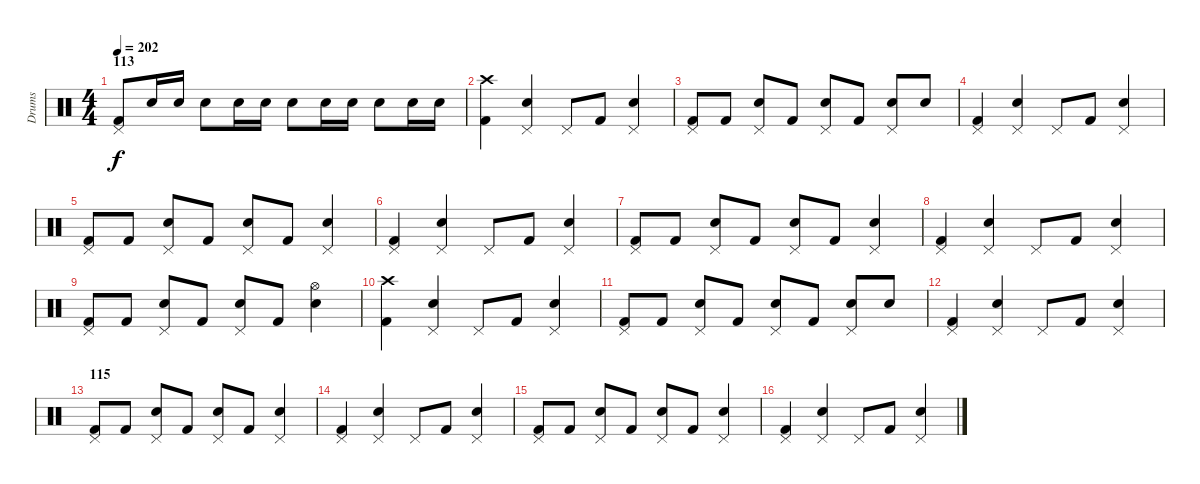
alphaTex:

\track ("Drums" "Drums") {instrument percussion}
\staff {score}
\articulation defaults
\ts (4 4)
\section ("" "113")
\tempo 202
\clef neutral
\ks c
("Pedal Hi-Hat (hit)" "Kick (hit) 2").8{dy f} "Electric Snare (hit)".16 "Electric Snare (hit)".16 "Electric Snare (hit)".8 "Electric Snare (hit)".16 "Electric Snare (hit)".16 "Electric Snare (hit)".8 "Electric Snare (hit)".16 "Electric Snare (hit)".16 "Electric Snare (hit)".8 "Electric Snare (hit)".16 "Electric Snare (hit)".16 |
("Crash high (hit)" "Kick (hit) 2").4 ("Pedal Hi-Hat (hit)" "Electric Snare (hit)").4 "Pedal Hi-Hat (hit)".8 "Kick (hit) 2".8 ("Pedal Hi-Hat (hit)" "Electric Snare (hit)").4 |
("Pedal Hi-Hat (hit)" "Kick (hit) 2").8 "Kick (hit) 2".8 ("Pedal Hi-Hat (hit)" "Electric Snare (hit)").8 "Kick (hit) 2".8 ("Pedal Hi-Hat (hit)" "Electric Snare (hit)").8 "Kick (hit) 2".8 ("Pedal Hi-Hat (hit)" "Electric Snare (hit)").8 "Electric Snare (hit)".8 |
("Pedal Hi-Hat (hit)" "Kick (hit) 2").4 ("Pedal Hi-Hat (hit)" "Electric Snare (hit)").4 "Pedal Hi-Hat (hit)".8 "Kick (hit) 2".8 ("Pedal Hi-Hat (hit)" "Electric Snare (hit)").4 |
("Pedal Hi-Hat (hit)" "Kick (hit) 2").8 "Kick (hit) 2".8 ("Pedal Hi-Hat (hit)" "Electric Snare (hit)").8 "Kick (hit) 2".8 ("Pedal Hi-Hat (hit)" "Electric Snare (hit)").8 "Kick (hit) 2".8 ("Pedal Hi-Hat (hit)" "Electric Snare (hit)").4 |
("Pedal Hi-Hat (hit)" "Kick (hit) 2").4 ("Pedal Hi-Hat (hit)" "Electric Snare (hit)").4 "Pedal Hi-Hat (hit)".8 "Kick (hit) 2".8 ("Pedal Hi-Hat (hit)" "Electric Snare (hit)").4 |
("Pedal Hi-Hat (hit)" "Kick (hit) 2").8 "Kick (hit) 2".8 ("Pedal Hi-Hat (hit)" "Electric Snare (hit)").8 "Kick (hit) 2".8 ("Pedal Hi-Hat (hit)" "Electric Snare (hit)").8 "Kick (hit) 2".8 ("Pedal Hi-Hat (hit)" "Electric Snare (hit)").4 |
("Pedal Hi-Hat (hit)" "Kick (hit) 2").4 ("Pedal Hi-Hat (hit)" "Electric Snare (hit)").4 "Pedal Hi-Hat (hit)".8 "Kick (hit) 2".8 ("Pedal Hi-Hat (hit)" "Electric Snare (hit)").4 |
("Pedal Hi-Hat (hit)" "Kick (hit) 2").8 "Kick (hit) 2".8 ("Pedal Hi-Hat (hit)" "Electric Snare (hit)").8 "Kick (hit) 2".8 ("Pedal Hi-Hat (hit)" "Electric Snare (hit)").8 "Kick (hit) 2".8 ("Hi-Hat (open)" "Electric Snare (hit)").4 |
("Crash high (hit)" "Kick (hit) 2").4 ("Pedal Hi-Hat (hit)" "Electric Snare (hit)").4 "Pedal Hi-Hat (hit)".8 "Kick (hit) 2".8 ("Pedal Hi-Hat (hit)" "Electric Snare (hit)").4 |
("Pedal Hi-Hat (hit)" "Kick (hit) 2").8 "Kick (hit) 2".8 ("Pedal Hi-Hat (hit)" "Electric Snare (hit)").8 "Kick (hit) 2".8 ("Pedal Hi-Hat (hit)" "Electric Snare (hit)").8 "Kick (hit) 2".8 ("Pedal Hi-Hat (hit)" "Electric Snare (hit)").8 "Electric Snare (hit)".8 |
("Pedal Hi-Hat (hit)" "Kick (hit) 2").4 ("Pedal Hi-Hat (hit)" "Electric Snare (hit)").4 "Pedal Hi-Hat (hit)".8 "Kick (hit) 2".8 ("Pedal Hi-Hat (hit)" "Electric Snare (hit)").4 |
\section ("" "115")
("Pedal Hi-Hat (hit)" "Kick (hit) 2").8 "Kick (hit) 2".8 ("Pedal Hi-Hat (hit)" "Electric Snare (hit)").8 "Kick (hit) 2".8 ("Pedal Hi-Hat (hit)" "Electric Snare (hit)").8 "Kick (hit) 2".8 ("Pedal Hi-Hat (hit)" "Electric Snare (hit)").4 |
("Pedal Hi-Hat (hit)" "Kick (hit) 2").4 ("Pedal Hi-Hat (hit)" "Electric Snare (hit)").4 "Pedal Hi-Hat (hit)".8 "Kick (hit) 2".8 ("Pedal Hi-Hat (hit)" "Electric Snare (hit)").4 |
("Pedal Hi-Hat (hit)" "Kick (hit) 2").8 "Kick (hit) 2".8 ("Pedal Hi-Hat (hit)" "Electric Snare (hit)").8 "Kick (hit) 2".8 ("Pedal Hi-Hat (hit)" "Electric Snare (hit)").8 "Kick (hit) 2".8 ("Pedal Hi-Hat (hit)" "Electric Snare (hit)").4 |
("Pedal Hi-Hat (hit)" "Kick (hit) 2").4 ("Pedal Hi-Hat (hit)" "Electric Snare (hit)").4 "Pedal Hi-Hat (hit)".8 "Kick (hit) 2".8 ("Pedal Hi-Hat (hit)" "Electric Snare (hit)").4
